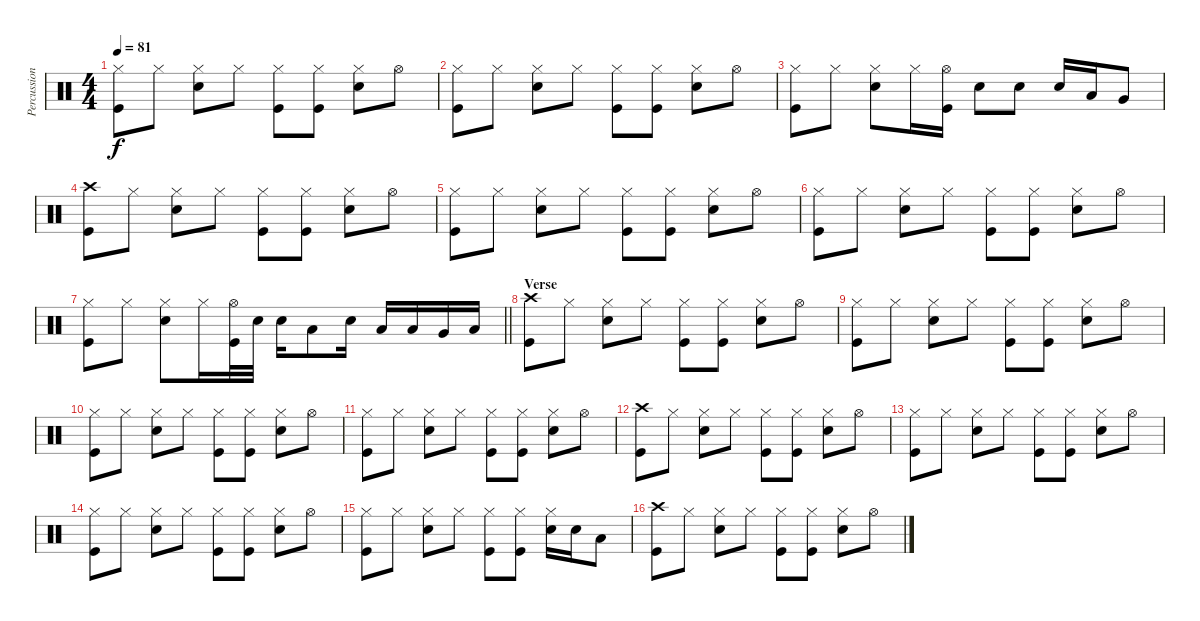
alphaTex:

\track ("Percussion" "Percussion") {instrument percussion}
\staff {score}
\articulation defaults
\ts (4 4)
\tempo 81
\clef neutral
\ks c
("Hi-Hat (closed)" "Kick (hit)").8{dy f} "Hi-Hat (closed)".8 ("Hi-Hat (closed)" "Snare (hit) 2").8 "Hi-Hat (closed)".8 ("Hi-Hat (closed)" "Kick (hit)").8 ("Hi-Hat (closed)" "Kick (hit)").8 ("Hi-Hat (closed)" "Snare (hit) 2").8 "Hi-Hat (open)".8 |
("Hi-Hat (closed)" "Kick (hit)").8 "Hi-Hat (closed)".8 ("Hi-Hat (closed)" "Snare (hit) 2").8 "Hi-Hat (closed)".8 ("Hi-Hat (closed)" "Kick (hit)").8 ("Hi-Hat (closed)" "Kick (hit)").8 ("Hi-Hat (closed)" "Snare (hit) 2").8 "Hi-Hat (open)".8 |
("Hi-Hat (closed)" "Kick (hit)").8 "Hi-Hat (closed)".8 ("Hi-Hat (closed)" "Snare (hit) 2").8 "Hi-Hat (closed)".16 ("Hi-Hat (open)" "Kick (hit)").16 "Snare (hit) 2".8 "Snare (hit) 2".8 "Snare (hit) 2".16 "Low Tom (hit)".16 "Very Low Tom (hit)".8 |
("Crash high (hit)" "Kick (hit)").8 "Hi-Hat (closed)".8 ("Hi-Hat (closed)" "Snare (hit) 2").8 "Hi-Hat (closed)".8 ("Hi-Hat (closed)" "Kick (hit)").8 ("Hi-Hat (closed)" "Kick (hit)").8 ("Hi-Hat (closed)" "Snare (hit) 2").8 "Hi-Hat (open)".8 |
("Hi-Hat (closed)" "Kick (hit)").8 "Hi-Hat (closed)".8 ("Hi-Hat (closed)" "Snare (hit) 2").8 "Hi-Hat (closed)".8 ("Hi-Hat (closed)" "Kick (hit)").8 ("Hi-Hat (closed)" "Kick (hit)").8 ("Hi-Hat (closed)" "Snare (hit) 2").8 "Hi-Hat (open)".8 |
("Hi-Hat (closed)" "Kick (hit)").8 "Hi-Hat (closed)".8 ("Hi-Hat (closed)" "Snare (hit) 2").8 "Hi-Hat (closed)".8 ("Hi-Hat (closed)" "Kick (hit)").8 ("Hi-Hat (closed)" "Kick (hit)").8 ("Hi-Hat (closed)" "Snare (hit) 2").8 "Hi-Hat (open)".8 |
\barLineRight lightlight
("Hi-Hat (closed)" "Kick (hit)").8 "Hi-Hat (closed)".8 ("Hi-Hat (closed)" "Snare (hit) 2").8 "Hi-Hat (closed)".16 ("Hi-Hat (open)" "Kick (hit)").32 "Snare (hit) 2".32 "Snare (hit) 2".16 "Low Tom (hit)".8 "Snare (hit) 2".16 "Low Tom (hit)".16 "Low Tom (hit)".16 "Very Low Tom (hit)".16 "Low Floor Tom (hit)".16 |
\section ("" "Verse")
("Crash high (hit)" "Kick (hit)").8 "Hi-Hat (closed)".8 ("Hi-Hat (closed)" "Snare (hit) 2").8 "Hi-Hat (closed)".8 ("Hi-Hat (closed)" "Kick (hit)").8 ("Hi-Hat (closed)" "Kick (hit)").8 ("Hi-Hat (closed)" "Snare (hit) 2").8 "Hi-Hat (open)".8 |
("Hi-Hat (closed)" "Kick (hit)").8 "Hi-Hat (closed)".8 ("Hi-Hat (closed)" "Snare (hit) 2").8 "Hi-Hat (closed)".8 ("Hi-Hat (closed)" "Kick (hit)").8 ("Hi-Hat (closed)" "Kick (hit)").8 ("Hi-Hat (closed)" "Snare (hit) 2").8 "Hi-Hat (open)".8 |
("Hi-Hat (closed)" "Kick (hit)").8 "Hi-Hat (closed)".8 ("Hi-Hat (closed)" "Snare (hit) 2").8 "Hi-Hat (closed)".8 ("Hi-Hat (closed)" "Kick (hit)").8 ("Hi-Hat (closed)" "Kick (hit)").8 ("Hi-Hat (closed)" "Snare (hit) 2").8 "Hi-Hat (open)".8 |
("Hi-Hat (closed)" "Kick (hit)").8 "Hi-Hat (closed)".8 ("Hi-Hat (closed)" "Snare (hit) 2").8 "Hi-Hat (closed)".8 ("Hi-Hat (closed)" "Kick (hit)").8 ("Hi-Hat (closed)" "Kick (hit)").8 ("Hi-Hat (closed)" "Snare (hit) 2").8 "Hi-Hat (open)".8 |
("Crash high (hit)" "Kick (hit)").8 "Hi-Hat (closed)".8 ("Hi-Hat (closed)" "Snare (hit) 2").8 "Hi-Hat (closed)".8 ("Hi-Hat (closed)" "Kick (hit)").8 ("Hi-Hat (closed)" "Kick (hit)").8 ("Hi-Hat (closed)" "Snare (hit) 2").8 "Hi-Hat (open)".8 |
("Hi-Hat (closed)" "Kick (hit)").8 "Hi-Hat (closed)".8 ("Hi-Hat (closed)" "Snare (hit) 2").8 "Hi-Hat (closed)".8 ("Hi-Hat (closed)" "Kick (hit)").8 ("Hi-Hat (closed)" "Kick (hit)").8 ("Hi-Hat (closed)" "Snare (hit) 2").8 "Hi-Hat (open)".8 |
("Hi-Hat (closed)" "Kick (hit)").8 "Hi-Hat (closed)".8 ("Hi-Hat (closed)" "Snare (hit) 2").8 "Hi-Hat (closed)".8 ("Hi-Hat (closed)" "Kick (hit)").8 ("Hi-Hat (closed)" "Kick (hit)").8 ("Hi-Hat (closed)" "Snare (hit) 2").8 "Hi-Hat (open)".8 |
("Hi-Hat (closed)" "Kick (hit)").8 "Hi-Hat (closed)".8 ("Hi-Hat (closed)" "Snare (hit) 2").8 "Hi-Hat (closed)".8 ("Hi-Hat (closed)" "Kick (hit)").8 ("Hi-Hat (closed)" "Kick (hit)").8 ("Hi-Hat (closed)" "Snare (hit) 2").16 "Snare (hit) 2".16 "Low Tom (hit)".8 |
("Crash high (hit)" "Kick (hit)").8 "Hi-Hat (closed)".8 ("Hi-Hat (closed)" "Snare (hit) 2").8 "Hi-Hat (closed)".8 ("Hi-Hat (closed)" "Kick (hit)").8 ("Hi-Hat (closed)" "Kick (hit)").8 ("Hi-Hat (closed)" "Snare (hit) 2").8 "Hi-Hat (open)".8
